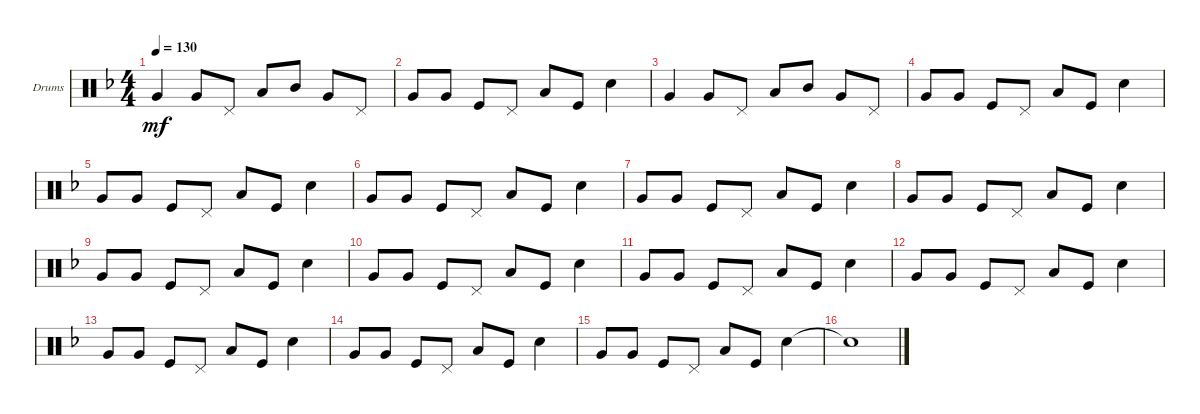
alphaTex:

\defaultSystemsLayout 4
\bracketExtendMode groupsimilarinstruments
\firstSystemTrackNameOrientation horizontal
\otherSystemsTrackNameOrientation horizontal
\track ("Drumkit" "Drums") {instrument percussion}
\staff {score}
\articulation defaults
\ts (4 4)
\tempo 130
\clef neutral
\ks f "Very Low Tom (hit)".4{dy mf} "Very Low Tom (hit)".8 "Pedal Hi-Hat (hit)".8 "Low Tom (hit)".8 "Mid Tom (hit)".8 "Very Low Tom (hit)".8 "Pedal Hi-Hat (hit)".8
|
"Very Low Tom (hit)".8 "Very Low Tom (hit)".8 "Kick (hit)".8 "Pedal Hi-Hat (hit)".8 "Low Tom (hit)".8 "Kick (hit)".8 "Snare (hit) 2".4 |
"Very Low Tom (hit)".4 "Very Low Tom (hit)".8 "Pedal Hi-Hat (hit)".8 "Low Tom (hit)".8 "Mid Tom (hit)".8 "Very Low Tom (hit)".8 "Pedal Hi-Hat (hit)".8 |
"Very Low Tom (hit)".8 "Very Low Tom (hit)".8 "Kick (hit)".8 "Pedal Hi-Hat (hit)".8 "Low Tom (hit)".8 "Kick (hit)".8 "Snare (hit) 2".4 |
"Very Low Tom (hit)".8 "Very Low Tom (hit)".8 "Kick (hit)".8 "Pedal Hi-Hat (hit)".8 "Low Tom (hit)".8 "Kick (hit)".8 "Snare (hit) 2".4 |
"Very Low Tom (hit)".8 "Very Low Tom (hit)".8 "Kick (hit)".8 "Pedal Hi-Hat (hit)".8 "Low Tom (hit)".8 "Kick (hit)".8 "Snare (hit) 2".4 |
"Very Low Tom (hit)".8 "Very Low Tom (hit)".8 "Kick (hit)".8 "Pedal Hi-Hat (hit)".8 "Low Tom (hit)".8 "Kick (hit)".8 "Snare (hit) 2".4 |
"Very Low Tom (hit)".8 "Very Low Tom (hit)".8 "Kick (hit)".8 "Pedal Hi-Hat (hit)".8 "Low Tom (hit)".8 "Kick (hit)".8 "Snare (hit) 2".4 |
"Very Low Tom (hit)".8 "Very Low Tom (hit)".8 "Kick (hit)".8 "Pedal Hi-Hat (hit)".8 "Low Tom (hit)".8 "Kick (hit)".8 "Snare (hit) 2".4 |
"Very Low Tom (hit)".8 "Very Low Tom (hit)".8 "Kick (hit)".8 "Pedal Hi-Hat (hit)".8 "Low Tom (hit)".8 "Kick (hit)".8 "Snare (hit) 2".4 |
"Very Low Tom (hit)".8 "Very Low Tom (hit)".8 "Kick (hit)".8 "Pedal Hi-Hat (hit)".8 "Low Tom (hit)".8 "Kick (hit)".8 "Snare (hit) 2".4 |
"Very Low Tom (hit)".8 "Very Low Tom (hit)".8 "Kick (hit)".8 "Pedal Hi-Hat (hit)".8 "Low Tom (hit)".8 "Kick (hit)".8 "Snare (hit) 2".4 |
"Very Low Tom (hit)".8 "Very Low Tom (hit)".8 "Kick (hit)".8 "Pedal Hi-Hat (hit)".8 "Low Tom (hit)".8 "Kick (hit)".8 "Snare (hit) 2".4 |
"Very Low Tom (hit)".8 "Very Low Tom (hit)".8 "Kick (hit)".8 "Pedal Hi-Hat (hit)".8 "Low Tom (hit)".8 "Kick (hit)".8 "Snare (hit) 2".4 |
"Very Low Tom (hit)".8 "Very Low Tom (hit)".8 "Kick (hit)".8 "Pedal Hi-Hat (hit)".8 "Low Tom (hit)".8 "Kick (hit)".8 "Snare (hit) 2".4 |
"Snare (hit) 2"{t}.1
